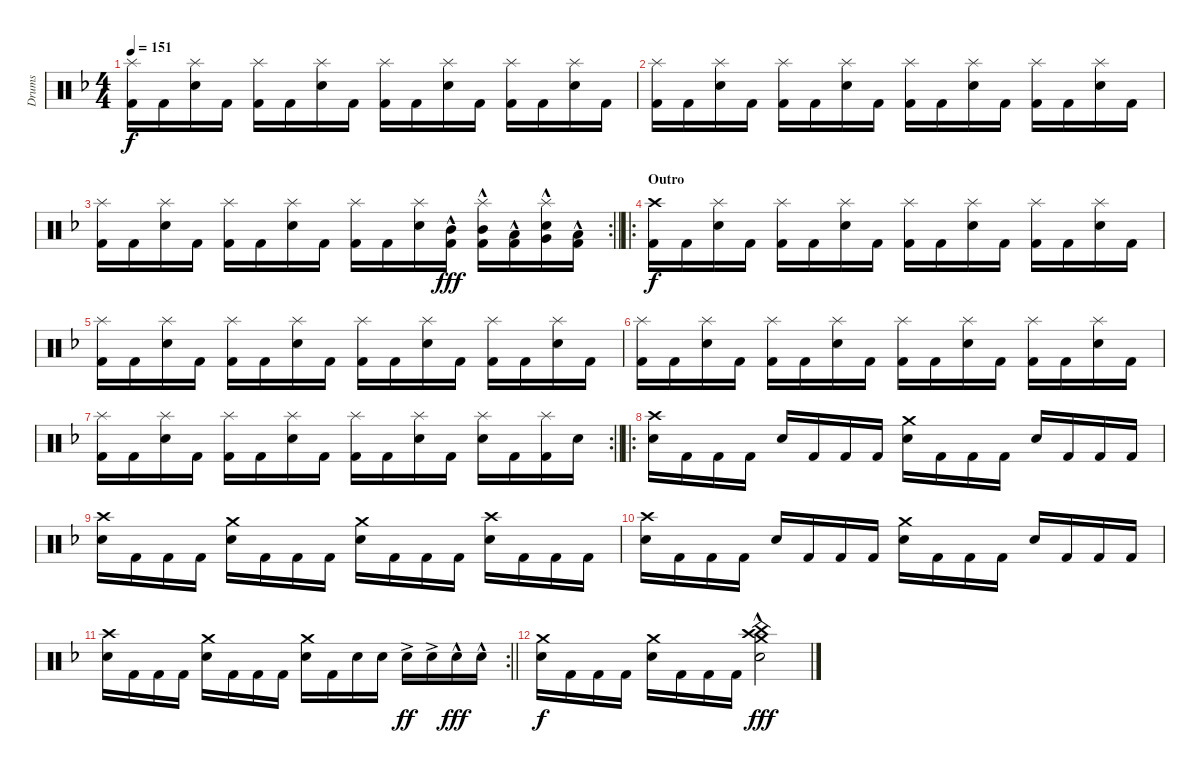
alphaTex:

\track ("Drums" "Drums") {instrument percussion}
\staff {score}
\articulation defaults
\ts (4 4)
\tempo 151
\clef neutral
\ks dminor
("Splash (hit)" "Kick (hit) 2").16{dy f} "Kick (hit) 2".16 ("Splash (hit)" "Snare (hit) 2").16 "Kick (hit) 2".16 ("Splash (hit)" "Kick (hit) 2").16 "Kick (hit) 2".16 ("Splash (hit)" "Snare (hit) 2").16 "Kick (hit) 2".16 ("Splash (hit)" "Kick (hit) 2").16 "Kick (hit) 2".16 ("Splash (hit)" "Snare (hit) 2").16 "Kick (hit) 2".16 ("Splash (hit)" "Kick (hit) 2").16 "Kick (hit) 2".16 ("Splash (hit)" "Snare (hit) 2").16 "Kick (hit) 2".16 |
("Splash (hit)" "Kick (hit) 2").16 "Kick (hit) 2".16 ("Splash (hit)" "Snare (hit) 2").16 "Kick (hit) 2".16 ("Splash (hit)" "Kick (hit) 2").16 "Kick (hit) 2".16 ("Splash (hit)" "Snare (hit) 2").16 "Kick (hit) 2".16 ("Splash (hit)" "Kick (hit) 2").16 "Kick (hit) 2".16 ("Splash (hit)" "Snare (hit) 2").16 "Kick (hit) 2".16 ("Splash (hit)" "Kick (hit) 2").16 "Kick (hit) 2".16 ("Splash (hit)" "Snare (hit) 2").16 "Kick (hit) 2".16 |
\rc 2
\barLineRight lightlight
("Splash (hit)" "Kick (hit) 2").16 "Kick (hit) 2".16 ("Splash (hit)" "Snare (hit) 2").16 "Kick (hit) 2".16 ("Splash (hit)" "Kick (hit) 2").16 "Kick (hit) 2".16 ("Splash (hit)" "Snare (hit) 2").16 "Kick (hit) 2".16 ("Splash (hit)" "Kick (hit) 2").16 "Kick (hit) 2".16 ("Splash (hit)" "Snare (hit) 2").16 ("Mid Tom (hit)"{hac} "Kick (hit) 2").16{dy fff} ("Splash (hit)" "Mid Tom (hit)"{hac} "Kick (hit) 2").16 ("Low Tom (hit)"{hac} "Kick (hit) 2").16 ("Splash (hit)" "Snare (hit) 2" "Very Low Tom (hit)"{hac}).16 ("Low Floor Tom (hit)"{hac} "Kick (hit) 2").16 |
\ro
\section ("" "Outro")
("Crash high (hit)" "Kick (hit) 2").16{dy f} "Kick (hit) 2".16 ("Splash (hit)" "Snare (hit) 2").16 "Kick (hit) 2".16 ("Splash (hit)" "Kick (hit) 2").16 "Kick (hit) 2".16 ("Splash (hit)" "Snare (hit) 2").16 "Kick (hit) 2".16 ("Splash (hit)" "Kick (hit) 2").16 "Kick (hit) 2".16 ("Splash (hit)" "Snare (hit) 2").16 "Kick (hit) 2".16 ("Splash (hit)" "Kick (hit) 2").16 "Kick (hit) 2".16 ("Splash (hit)" "Snare (hit) 2").16 "Kick (hit) 2".16 |
("Splash (hit)" "Kick (hit) 2").16 "Kick (hit) 2".16 ("Splash (hit)" "Snare (hit) 2").16 "Kick (hit) 2".16 ("Splash (hit)" "Kick (hit) 2").16 "Kick (hit) 2".16 ("Splash (hit)" "Snare (hit) 2").16 "Kick (hit) 2".16 ("Splash (hit)" "Kick (hit) 2").16 "Kick (hit) 2".16 ("Splash (hit)" "Snare (hit) 2").16 "Kick (hit) 2".16 ("Splash (hit)" "Kick (hit) 2").16 "Kick (hit) 2".16 ("Splash (hit)" "Snare (hit) 2").16 "Kick (hit) 2".16 |
("Splash (hit)" "Kick (hit) 2").16 "Kick (hit) 2".16 ("Splash (hit)" "Snare (hit) 2").16 "Kick (hit) 2".16 ("Splash (hit)" "Kick (hit) 2").16 "Kick (hit) 2".16 ("Splash (hit)" "Snare (hit) 2").16 "Kick (hit) 2".16 ("Splash (hit)" "Kick (hit) 2").16 "Kick (hit) 2".16 ("Splash (hit)" "Snare (hit) 2").16 "Kick (hit) 2".16 ("Splash (hit)" "Kick (hit) 2").16 "Kick (hit) 2".16 ("Splash (hit)" "Snare (hit) 2").16 "Kick (hit) 2".16 |
\rc 2
\barLineRight lightlight
("Splash (hit)" "Kick (hit) 2").16 "Kick (hit) 2".16 ("Splash (hit)" "Snare (hit) 2").16 "Kick (hit) 2".16 ("Splash (hit)" "Kick (hit) 2").16 "Kick (hit) 2".16 ("Splash (hit)" "Snare (hit) 2").16 "Kick (hit) 2".16 ("Splash (hit)" "Kick (hit) 2").16 "Kick (hit) 2".16 ("Splash (hit)" "Snare (hit) 2").16 "Kick (hit) 2".16 ("Splash (hit)" "Snare (hit) 2").16 "Kick (hit) 2".16 ("Splash (hit)" "Kick (hit) 2").16 "Snare (hit) 2".16 |
\ro
("Crash high (hit)" "Snare (hit) 2").16 "Kick (hit) 2".16 "Kick (hit) 2".16 "Kick (hit) 2".16 "Snare (hit) 2".16 "Kick (hit) 2".16 "Kick (hit) 2".16 "Kick (hit) 2".16 ("Crash medium (hit)" "Snare (hit) 2").16 "Kick (hit) 2".16 "Kick (hit) 2".16 "Kick (hit) 2".16 "Snare (hit) 2".16 "Kick (hit) 2".16 "Kick (hit) 2".16 "Kick (hit) 2".16 |
("Crash high (hit)" "Snare (hit) 2").16 "Kick (hit) 2".16 "Kick (hit) 2".16 "Kick (hit) 2".16 ("Crash medium (hit)" "Snare (hit) 2").16 "Kick (hit) 2".16 "Kick (hit) 2".16 "Kick (hit) 2".16 ("Crash medium (hit)" "Snare (hit) 2").16 "Kick (hit) 2".16 "Kick (hit) 2".16 "Kick (hit) 2".16 ("Crash high (hit)" "Snare (hit) 2").16 "Kick (hit) 2".16 "Kick (hit) 2".16 "Kick (hit) 2".16 |
("Crash high (hit)" "Snare (hit) 2").16 "Kick (hit) 2".16 "Kick (hit) 2".16 "Kick (hit) 2".16 "Snare (hit) 2".16 "Kick (hit) 2".16 "Kick (hit) 2".16 "Kick (hit) 2".16 ("Crash medium (hit)" "Snare (hit) 2").16 "Kick (hit) 2".16 "Kick (hit) 2".16 "Kick (hit) 2".16 "Snare (hit) 2".16 "Kick (hit) 2".16 "Kick (hit) 2".16 "Kick (hit) 2".16 |
\rc 2
\barLineRight lightlight
("Crash high (hit)" "Snare (hit) 2").16 "Kick (hit) 2".16 "Kick (hit) 2".16 "Kick (hit) 2".16 ("Crash medium (hit)" "Snare (hit) 2").16 "Kick (hit) 2".16 "Kick (hit) 2".16 "Kick (hit) 2".16 ("Crash medium (hit)" "Snare (hit) 2").16 "Kick (hit) 2".16 "Snare (hit) 2".16 "Snare (hit) 2".16 "Snare (hit) 2"{ac}.16{dy ff} "Snare (hit) 2"{ac}.16 "Snare (hit) 2"{hac}.16{dy fff} "Snare (hit) 2"{hac}.16 |
("Crash medium (hit)" "Snare (hit) 2").16{dy f} "Kick (hit) 2".16 "Kick (hit) 2".16 "Kick (hit) 2".16 ("Crash medium (hit)" "Snare (hit) 2").16 "Kick (hit) 2".16 "Kick (hit) 2".16 "Kick (hit) 2".16 ("Crash medium (hit)"{hac} "Crash high (hit)"{hac} "China (hit)"{hac} "Snare (hit) 2"{hac}).2{dy fff}
